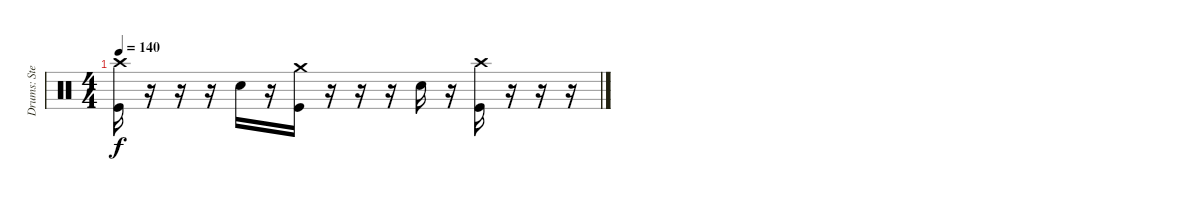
\track ("Drums: Steven Adler" "Drums: Ste") {instrument percussion}
\staff {score}
\articulation defaults
\ts (4 4)
\tempo 140
\clef neutral
\ks c
("Crash high (hit)" "Kick (hit)").16{dy f} r.16 r.16 r.16 "Electric Snare (hit)".16 r.16 ("Crash medium (hit)" "Kick (hit)").16 r.16 r.16 r.16 "Electric Snare (hit)".16 r.16 ("Crash high (hit)" "Kick (hit)").16 r.16 r.16 r.16
